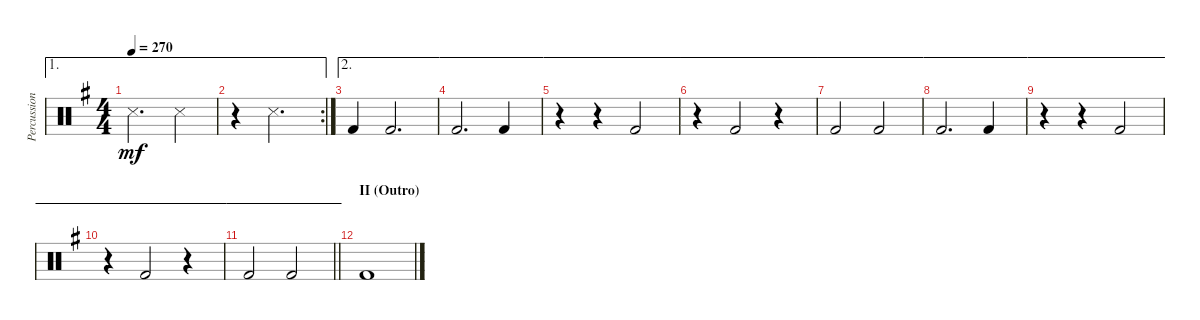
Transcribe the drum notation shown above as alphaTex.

\track ("Percussion" "Percussion") {instrument percussion}
\staff {score}
\articulation defaults
\ae 1
\ts (4 4)
\tempo 270
\clef neutral
\ks g "Snare (side stick) 3".2{d dy mf} "Snare (side stick) 3".4
|
\ae 1
\rc 2
r.4 "Snare (side stick) 3".2{d} |
\ae 2 "Kick (hit) 2".4 "Kick (hit) 2".2{d}
|
\ae 2 "Kick (hit) 2".2{d} "Kick (hit) 2".4
|
\ae 2
r.4 r.4 "Kick (hit) 2".2 |
\ae 2
r.4 "Kick (hit) 2".2 r.4 |
\ae 2 "Kick (hit) 2".2 "Kick (hit) 2".2
|
\ae 2 "Kick (hit) 2".2{d} "Kick (hit) 2".4
|
\ae 2
r.4 r.4 "Kick (hit) 2".2 |
\ae 2
r.4 "Kick (hit) 2".2 r.4 |
\ae 2
\barLineRight lightlight "Kick (hit) 2".2 "Kick (hit) 2".2
|
\section ("" "II (Outro)")
"Kick (hit) 2".1
